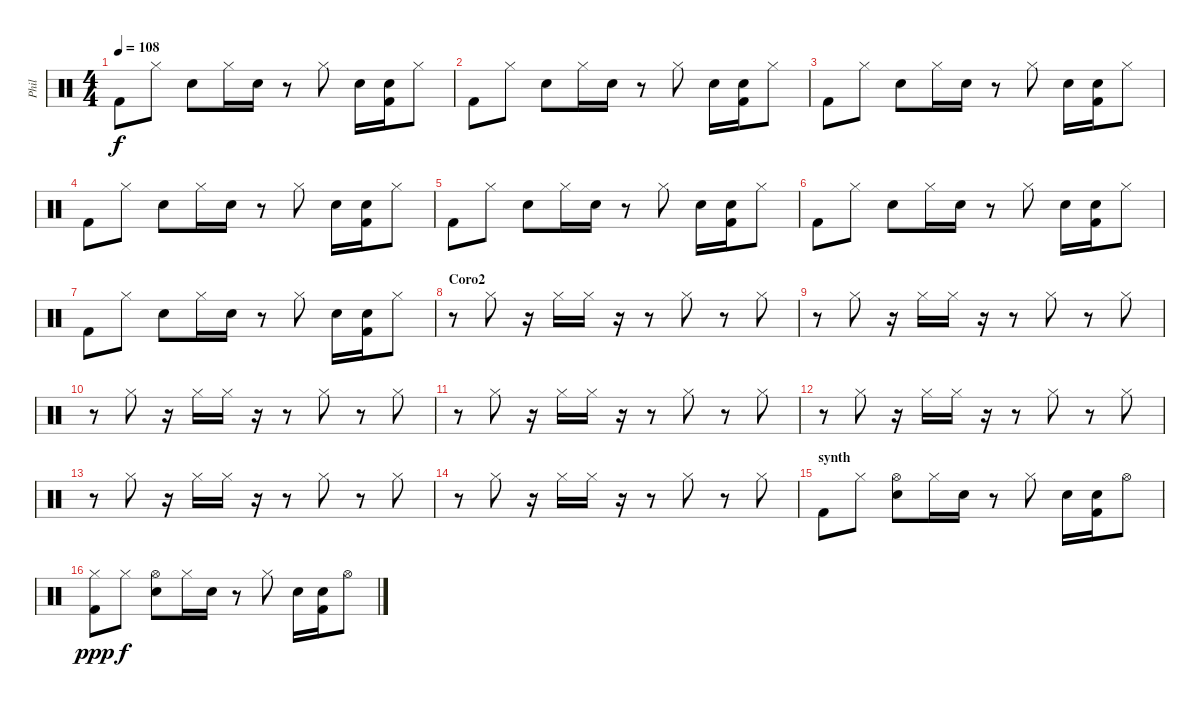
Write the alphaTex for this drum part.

\track ("Phil" "Phil") {instrument percussion}
\staff {score}
\articulation defaults
\ts (4 4)
\tempo 108
\clef neutral
\ks c "Kick (hit) 2".8{dy f} "Hi-Hat (closed)".8 "Electric Snare (hit)".8 "Hi-Hat (closed)".16 "Electric Snare (hit)".16
r.8 "Hi-Hat (closed)".8 "Electric Snare (hit)".16 ("Electric Snare (hit)" "Kick (hit) 2").16 "Hi-Hat (closed)".8 |
"Kick (hit) 2".8 "Hi-Hat (closed)".8 "Electric Snare (hit)".8 "Hi-Hat (closed)".16 "Electric Snare (hit)".16 r.8 "Hi-Hat (closed)".8 "Electric Snare (hit)".16 ("Electric Snare (hit)" "Kick (hit) 2").16 "Hi-Hat (closed)".8 |
"Kick (hit) 2".8 "Hi-Hat (closed)".8 "Electric Snare (hit)".8 "Hi-Hat (closed)".16 "Electric Snare (hit)".16 r.8 "Hi-Hat (closed)".8 "Electric Snare (hit)".16 ("Electric Snare (hit)" "Kick (hit) 2").16 "Hi-Hat (closed)".8 |
"Kick (hit) 2".8 "Hi-Hat (closed)".8 "Electric Snare (hit)".8 "Hi-Hat (closed)".16 "Electric Snare (hit)".16 r.8 "Hi-Hat (closed)".8 "Electric Snare (hit)".16 ("Electric Snare (hit)" "Kick (hit) 2").16 "Hi-Hat (closed)".8 |
"Kick (hit) 2".8 "Hi-Hat (closed)".8 "Electric Snare (hit)".8 "Hi-Hat (closed)".16 "Electric Snare (hit)".16 r.8 "Hi-Hat (closed)".8 "Electric Snare (hit)".16 ("Electric Snare (hit)" "Kick (hit) 2").16 "Hi-Hat (closed)".8 |
"Kick (hit) 2".8 "Hi-Hat (closed)".8 "Electric Snare (hit)".8 "Hi-Hat (closed)".16 "Electric Snare (hit)".16 r.8 "Hi-Hat (closed)".8 "Electric Snare (hit)".16 ("Electric Snare (hit)" "Kick (hit) 2").16 "Hi-Hat (closed)".8 |
"Kick (hit) 2".8 "Hi-Hat (closed)".8 "Electric Snare (hit)".8 "Hi-Hat (closed)".16 "Electric Snare (hit)".16 r.8 "Hi-Hat (closed)".8 "Electric Snare (hit)".16 ("Electric Snare (hit)" "Kick (hit) 2").16 "Hi-Hat (closed)".8 |
\section ("" "Coro2")
r.8 "Hi-Hat (closed)".8 r.16 "Hi-Hat (closed)".16 "Hi-Hat (closed)".16 r.16 r.8 "Hi-Hat (closed)".8 r.8 "Hi-Hat (closed)".8 |
r.8 "Hi-Hat (closed)".8 r.16 "Hi-Hat (closed)".16 "Hi-Hat (closed)".16 r.16 r.8 "Hi-Hat (closed)".8 r.8 "Hi-Hat (closed)".8 |
r.8 "Hi-Hat (closed)".8 r.16 "Hi-Hat (closed)".16 "Hi-Hat (closed)".16 r.16 r.8 "Hi-Hat (closed)".8 r.8 "Hi-Hat (closed)".8 |
r.8 "Hi-Hat (closed)".8 r.16 "Hi-Hat (closed)".16 "Hi-Hat (closed)".16 r.16 r.8 "Hi-Hat (closed)".8 r.8 "Hi-Hat (closed)".8 |
r.8 "Hi-Hat (closed)".8 r.16 "Hi-Hat (closed)".16 "Hi-Hat (closed)".16 r.16 r.8 "Hi-Hat (closed)".8 r.8 "Hi-Hat (closed)".8 |
r.8 "Hi-Hat (closed)".8 r.16 "Hi-Hat (closed)".16 "Hi-Hat (closed)".16 r.16 r.8 "Hi-Hat (closed)".8 r.8 "Hi-Hat (closed)".8 |
r.8 "Hi-Hat (closed)".8 r.16 "Hi-Hat (closed)".16 "Hi-Hat (closed)".16 r.16 r.8 "Hi-Hat (closed)".8 r.8 "Hi-Hat (closed)".8 |
\section ("" "synth")
"Kick (hit) 2".8 "Hi-Hat (closed)".8 ("Hi-Hat (open)" "Electric Snare (hit)").8 "Hi-Hat (closed)".16 "Electric Snare (hit)".16 r.8 "Hi-Hat (closed)".8 "Electric Snare (hit)".16 ("Electric Snare (hit)" "Kick (hit) 2").16 "Hi-Hat (open)".8 |
("Hi-Hat (closed)" "Kick (hit) 2").8{dy ppp} "Hi-Hat (closed)".8{dy f} ("Hi-Hat (open)" "Electric Snare (hit)").8 "Hi-Hat (closed)".16 "Electric Snare (hit)".16 r.8 "Hi-Hat (closed)".8 "Electric Snare (hit)".16 ("Electric Snare (hit)" "Kick (hit) 2").16 "Hi-Hat (open)".8
